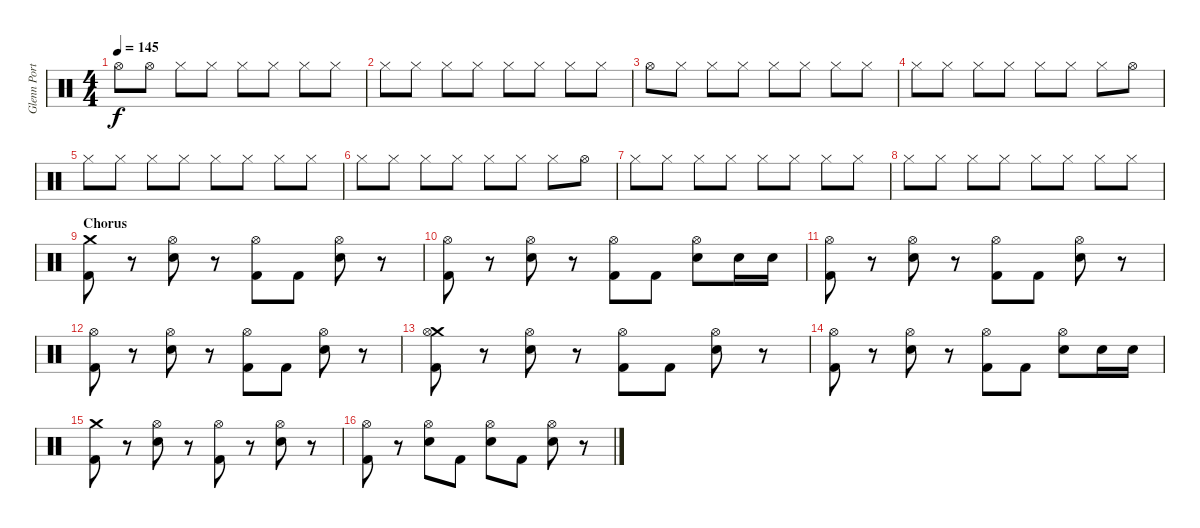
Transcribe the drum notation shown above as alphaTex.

\track ("Glenn Porter - Drums" "Glenn Port") {instrument percussion}
\staff {score}
\articulation defaults
\ts (4 4)
\tempo 145
\clef neutral
\ks c "Hi-Hat (open)".8{dy f} "Hi-Hat (open)".8 "Hi-Hat (closed)".8 "Hi-Hat (closed)".8 "Hi-Hat (closed)".8 "Hi-Hat (closed)".8 "Hi-Hat (closed)".8 "Hi-Hat (closed)".8
|
"Hi-Hat (closed)".8 "Hi-Hat (closed)".8 "Hi-Hat (closed)".8 "Hi-Hat (closed)".8 "Hi-Hat (closed)".8 "Hi-Hat (closed)".8 "Hi-Hat (closed)".8 "Hi-Hat (closed)".8 |
"Hi-Hat (open)".8 "Hi-Hat (closed)".8 "Hi-Hat (closed)".8 "Hi-Hat (closed)".8 "Hi-Hat (closed)".8 "Hi-Hat (closed)".8 "Hi-Hat (closed)".8 "Hi-Hat (closed)".8 |
"Hi-Hat (closed)".8 "Hi-Hat (closed)".8 "Hi-Hat (closed)".8 "Hi-Hat (closed)".8 "Hi-Hat (closed)".8 "Hi-Hat (closed)".8 "Hi-Hat (closed)".8 "Hi-Hat (open)".8 |
"Hi-Hat (closed)".8 "Hi-Hat (closed)".8 "Hi-Hat (closed)".8 "Hi-Hat (closed)".8 "Hi-Hat (closed)".8 "Hi-Hat (closed)".8 "Hi-Hat (closed)".8 "Hi-Hat (closed)".8 |
"Hi-Hat (closed)".8 "Hi-Hat (closed)".8 "Hi-Hat (closed)".8 "Hi-Hat (closed)".8 "Hi-Hat (closed)".8 "Hi-Hat (closed)".8 "Hi-Hat (closed)".8 "Hi-Hat (open)".8 |
"Hi-Hat (closed)".8 "Hi-Hat (closed)".8 "Hi-Hat (closed)".8 "Hi-Hat (closed)".8 "Hi-Hat (closed)".8 "Hi-Hat (closed)".8 "Hi-Hat (closed)".8 "Hi-Hat (closed)".8 |
"Hi-Hat (closed)".8 "Hi-Hat (closed)".8 "Hi-Hat (closed)".8 "Hi-Hat (closed)".8 "Hi-Hat (closed)".8 "Hi-Hat (closed)".8 "Hi-Hat (closed)".8 "Hi-Hat (closed)".8 |
\section ("" "Chorus ")
("Crash medium (hit)" "Kick (hit) 2").8 r.8 ("Hi-Hat (open)" "Electric Snare (hit)").8 r.8 ("Hi-Hat (open)" "Kick (hit) 2").8 "Kick (hit) 2".8 ("Hi-Hat (open)" "Electric Snare (hit)").8 r.8 |
("Hi-Hat (open)" "Kick (hit) 2").8 r.8 ("Hi-Hat (open)" "Electric Snare (hit)").8 r.8 ("Hi-Hat (open)" "Kick (hit) 2").8 "Kick (hit) 2".8 ("Hi-Hat (open)" "Electric Snare (hit)").8 "Electric Snare (hit)".16 "Electric Snare (hit)".16 |
("Hi-Hat (open)" "Kick (hit) 2").8 r.8 ("Hi-Hat (open)" "Electric Snare (hit)").8 r.8 ("Hi-Hat (open)" "Kick (hit) 2").8 "Kick (hit) 2".8 ("Hi-Hat (open)" "Electric Snare (hit)").8 r.8 |
("Hi-Hat (open)" "Kick (hit) 2").8 r.8 ("Hi-Hat (open)" "Electric Snare (hit)").8 r.8 ("Hi-Hat (open)" "Kick (hit) 2").8 "Kick (hit) 2".8 ("Hi-Hat (open)" "Electric Snare (hit)").8 r.8 |
("Crash medium (hit)" "Hi-Hat (open)" "Kick (hit) 2").8 r.8 ("Hi-Hat (open)" "Electric Snare (hit)").8 r.8 ("Hi-Hat (open)" "Kick (hit) 2").8 "Kick (hit) 2".8 ("Hi-Hat (open)" "Electric Snare (hit)").8 r.8 |
("Hi-Hat (open)" "Kick (hit) 2").8 r.8 ("Hi-Hat (open)" "Electric Snare (hit)").8 r.8 ("Hi-Hat (open)" "Kick (hit) 2").8 "Kick (hit) 2".8 ("Hi-Hat (open)" "Electric Snare (hit)").8 "Electric Snare (hit)".16 "Electric Snare (hit)".16 |
("Crash medium (hit)" "Kick (hit) 2").8 r.8 ("Hi-Hat (open)" "Electric Snare (hit)").8 r.8 ("Hi-Hat (open)" "Kick (hit) 2").8 r.8 ("Hi-Hat (open)" "Electric Snare (hit)").8 r.8 |
("Hi-Hat (open)" "Kick (hit) 2").8 r.8 ("Hi-Hat (open)" "Electric Snare (hit)").8 "Kick (hit) 2".8 ("Hi-Hat (open)" "Electric Snare (hit)").8 "Kick (hit) 2".8 ("Hi-Hat (open)" "Electric Snare (hit)").8 r.8
